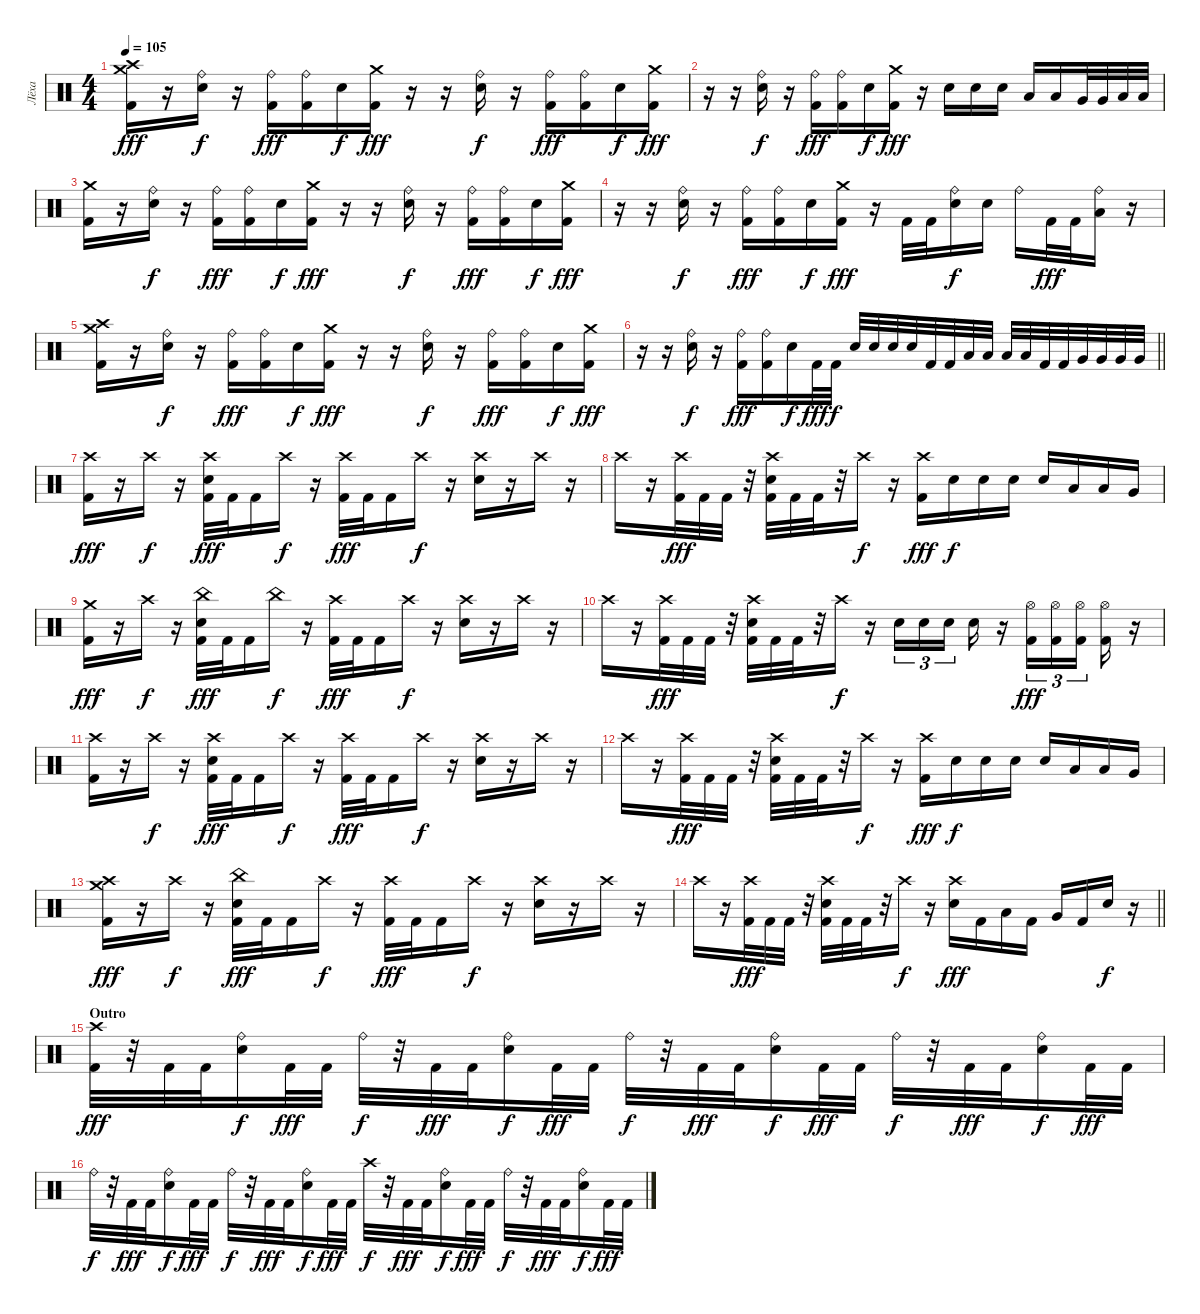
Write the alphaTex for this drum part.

\track ("Лёха" "Лёха") {solo instrument percussion}
\staff {score}
\articulation defaults
\ts (4 4)
\section ("" "")
\tempo 105
\clef neutral
\ks c
("Crash high (hit)" "Crash medium (hit)" "Kick (hit) 2").16{dy fff} r.16 ("Ride (bell)" "Electric Snare (hit)").16{dy f} r.16 ("Ride (bell)" "Kick (hit) 2").16{dy fff} ("Ride (bell)" "Kick (hit) 2").16 "Electric Snare (hit)".16{dy f} ("Crash medium (hit)" "Kick (hit) 2").16{dy fff} r.16 r.16 ("Ride (bell)" "Electric Snare (hit)").16{dy f} r.16 ("Ride (bell)" "Kick (hit) 2").16{dy fff} ("Ride (bell)" "Kick (hit) 2").16 "Electric Snare (hit)".16{dy f} ("Crash medium (hit)" "Kick (hit) 2").16{dy fff} |
r.16 r.16 ("Ride (bell)" "Electric Snare (hit)").16{dy f} r.16 ("Ride (bell)" "Kick (hit) 2").16{dy fff} ("Ride (bell)" "Kick (hit) 2").16 "Electric Snare (hit)".16{dy f} ("Crash medium (hit)" "Kick (hit) 2").16{dy fff} r.16 "Electric Snare (hit)".16 "Electric Snare (hit)".16 "Electric Snare (hit)".16 "Low Tom (hit)".16 "Low Tom (hit)".16 "Very Low Tom (hit)".32 "Very Low Tom (hit)".32 "Low Floor Tom (hit)".32 "Low Floor Tom (hit)".32 |
("Crash medium (hit)" "Kick (hit) 2").16 r.16 ("Ride (bell)" "Electric Snare (hit)").16{dy f} r.16 ("Ride (bell)" "Kick (hit) 2").16{dy fff} ("Ride (bell)" "Kick (hit) 2").16 "Electric Snare (hit)".16{dy f} ("Crash medium (hit)" "Kick (hit) 2").16{dy fff} r.16 r.16 ("Ride (bell)" "Electric Snare (hit)").16{dy f} r.16 ("Ride (bell)" "Kick (hit) 2").16{dy fff} ("Ride (bell)" "Kick (hit) 2").16 "Electric Snare (hit)".16{dy f} ("Crash medium (hit)" "Kick (hit) 2").16{dy fff} |
r.16 r.16 ("Ride (bell)" "Electric Snare (hit)").16{dy f} r.16 ("Ride (bell)" "Kick (hit) 2").16{dy fff} ("Ride (bell)" "Kick (hit) 2").16 "Electric Snare (hit)".16{dy f} ("Crash medium (hit)" "Kick (hit) 2").16{dy fff} r.16 "Kick (hit) 2".32 "Kick (hit) 2".32 ("Ride (bell)" "Electric Snare (hit)").16{dy f} "Electric Snare (hit)".16 "Ride (bell)".16 "Kick (hit) 2".32{dy fff} "Kick (hit) 2".32 ("Ride (bell)" "Low Tom (hit)").16 r.16 |
("Crash high (hit)" "Crash medium (hit)" "Kick (hit) 2").16 r.16 ("Ride (bell)" "Electric Snare (hit)").16{dy f} r.16 ("Ride (bell)" "Kick (hit) 2").16{dy fff} ("Ride (bell)" "Kick (hit) 2").16 "Electric Snare (hit)".16{dy f} ("Crash medium (hit)" "Kick (hit) 2").16{dy fff} r.16 r.16 ("Ride (bell)" "Electric Snare (hit)").16{dy f} r.16 ("Ride (bell)" "Kick (hit) 2").16{dy fff} ("Ride (bell)" "Kick (hit) 2").16 "Electric Snare (hit)".16{dy f} ("Crash medium (hit)" "Kick (hit) 2").16{dy fff} |
\barLineRight lightlight
r.16 r.16 ("Ride (bell)" "Electric Snare (hit)").16{dy f} r.16 ("Ride (bell)" "Kick (hit) 2").16{dy fff} ("Ride (bell)" "Kick (hit) 2").16 "Electric Snare (hit)".16{dy f} "Kick (hit) 2".32{dy fff} "Kick (hit) 2".32{dy f} "Electric Snare (hit)".32 "Electric Snare (hit)".32 "Electric Snare (hit)".32 "Electric Snare (hit)".32 "Kick (hit) 2".32 "Kick (hit) 2".32 "Low Tom (hit)".32 "Low Tom (hit)".32 "Low Tom (hit)".32 "Low Tom (hit)".32 "Kick (hit) 2".32 "Kick (hit) 2".32 "Very Low Tom (hit)".32 "Very Low Tom (hit)".32 "Very Low Tom (hit)".32 "Very Low Tom (hit)".32 |
\section ("" "")
("Crash high (hit)" "Kick (hit) 2").16{dy fff} r.16 "Crash high (hit)".16{dy f} r.16 ("Crash high (hit)" "Electric Snare (hit)" "Kick (hit) 2").32{dy fff} "Kick (hit) 2".32 "Kick (hit) 2".16 "Crash high (hit)".16{dy f} r.16 ("Crash high (hit)" "Kick (hit) 2").32{dy fff} "Kick (hit) 2".32 "Kick (hit) 2".16 "Crash high (hit)".16{dy f} r.16 ("Crash high (hit)" "Electric Snare (hit)").16 r.16 "Crash high (hit)".16 r.16 |
"Crash high (hit)".16 r.16 ("Crash high (hit)" "Kick (hit) 2").32{dy fff} "Kick (hit) 2".32 "Kick (hit) 2".32 r.32 ("Crash high (hit)" "Electric Snare (hit)" "Kick (hit) 2").32 "Kick (hit) 2".32 "Kick (hit) 2".32 r.32 "Crash high (hit)".16{dy f} r.16 ("Crash high (hit)" "Kick (hit) 2").16{dy fff} "Electric Snare (hit)".16{dy f} "Electric Snare (hit)".16 "Electric Snare (hit)".16 "Electric Snare (hit)".16 "Low Tom (hit)".16 "Low Tom (hit)".16 "Very Low Tom (hit)".16 |
("Crash medium (hit)" "Kick (hit) 2").16{dy fff} r.16 "Crash high (hit)".16{dy f} r.16 ("China (hit)" "Electric Snare (hit)" "Kick (hit) 2").32{dy fff} "Kick (hit) 2".32 "Kick (hit) 2".16 "China (hit)".16{dy f} r.16 ("Crash high (hit)" "Kick (hit) 2").32{dy fff} "Kick (hit) 2".32 "Kick (hit) 2".16 "Crash high (hit)".16{dy f} r.16 ("Crash high (hit)" "Electric Snare (hit)").16 r.16 "Crash high (hit)".16 r.16 |
"Crash high (hit)".16 r.16 ("Crash high (hit)" "Kick (hit) 2").32{dy fff} "Kick (hit) 2".32 "Kick (hit) 2".32 r.32 ("Crash high (hit)" "Electric Snare (hit)" "Kick (hit) 2").32 "Kick (hit) 2".32 "Kick (hit) 2".32 r.32 "Crash high (hit)".16{dy f} r.16 "Electric Snare (hit)".16{tu (3 2)} "Electric Snare (hit)".16{tu (3 2)} "Electric Snare (hit)".16{tu (3 2) beam splitsecondary} "Electric Snare (hit)".16 r.16 ("Hi-Hat (open)" "Kick (hit) 2").16{tu (3 2) dy fff} ("Hi-Hat (open)" "Kick (hit) 2").16{tu (3 2)} ("Hi-Hat (open)" "Kick (hit) 2").16{tu (3 2) beam splitsecondary} ("Hi-Hat (open)" "Kick (hit) 2").16 r.16 |
("Crash high (hit)" "Kick (hit) 2").16 r.16 "Crash high (hit)".16{dy f} r.16 ("Crash high (hit)" "Electric Snare (hit)" "Kick (hit) 2").32{dy fff} "Kick (hit) 2".32 "Kick (hit) 2".16 "Crash high (hit)".16{dy f} r.16 ("Crash high (hit)" "Kick (hit) 2").32{dy fff} "Kick (hit) 2".32 "Kick (hit) 2".16 "Crash high (hit)".16{dy f} r.16 ("Crash high (hit)" "Electric Snare (hit)").16 r.16 "Crash high (hit)".16 r.16 |
"Crash high (hit)".16 r.16 ("Crash high (hit)" "Kick (hit) 2").32{dy fff} "Kick (hit) 2".32 "Kick (hit) 2".32 r.32 ("Crash high (hit)" "Electric Snare (hit)" "Kick (hit) 2").32 "Kick (hit) 2".32 "Kick (hit) 2".32 r.32 "Crash high (hit)".16{dy f} r.16 ("Crash high (hit)" "Kick (hit) 2").16{dy fff} "Electric Snare (hit)".16{dy f} "Electric Snare (hit)".16 "Electric Snare (hit)".16 "Electric Snare (hit)".16 "Low Tom (hit)".16 "Low Tom (hit)".16 "Very Low Tom (hit)".16 |
("Crash high (hit)" "Crash medium (hit)" "Kick (hit) 2").16{dy fff} r.16 "Crash high (hit)".16{dy f} r.16 ("China (hit)" "Electric Snare (hit)" "Kick (hit) 2").32{dy fff} "Kick (hit) 2".32 "Kick (hit) 2".16 "Crash high (hit)".16{dy f} r.16 ("Crash high (hit)" "Kick (hit) 2").32{dy fff} "Kick (hit) 2".32 "Kick (hit) 2".16 "Crash high (hit)".16{dy f} r.16 ("Crash high (hit)" "Electric Snare (hit)").16 r.16 "Crash high (hit)".16 r.16 |
\barLineRight lightlight "Crash high (hit)".16
r.16 ("Crash high (hit)" "Kick (hit) 2").32{dy fff} "Kick (hit) 2".32 "Kick (hit) 2".32 r.32 ("Crash high (hit)" "Electric Snare (hit)" "Kick (hit) 2").32 "Kick (hit) 2".32 "Kick (hit) 2".32 r.32 "Crash high (hit)".16{dy f} r.16 ("Crash high (hit)" "Electric Snare (hit)").16{dy fff} "Kick (hit) 2".16 "Low Tom (hit)".16 "Kick (hit) 2".16 "Very Low Tom (hit)".16 "Kick (hit) 2".16 "Electric Snare (hit)".16{dy f} r.16 |
\section ("" "Outro")
("Crash high (hit)" "Kick (hit) 2").32{dy fff} r.32 "Kick (hit) 2".32 "Kick (hit) 2".32 ("Ride (bell)" "Electric Snare (hit)").16{dy f} "Kick (hit) 2".32{dy fff} "Kick (hit) 2".32 "Ride (bell)".32{dy f} r.32 "Kick (hit) 2".32{dy fff} "Kick (hit) 2".32 ("Ride (bell)" "Electric Snare (hit)").16{dy f} "Kick (hit) 2".32{dy fff} "Kick (hit) 2".32 "Ride (bell)".32{dy f} r.32 "Kick (hit) 2".32{dy fff} "Kick (hit) 2".32 ("Ride (bell)" "Electric Snare (hit)").16{dy f} "Kick (hit) 2".32{dy fff} "Kick (hit) 2".32 "Ride (bell)".32{dy f} r.32 "Kick (hit) 2".32{dy fff} "Kick (hit) 2".32 ("Ride (bell)" "Electric Snare (hit)").16{dy f} "Kick (hit) 2".32{dy fff} "Kick (hit) 2".32 |
"Ride (bell)".32{dy f} r.32 "Kick (hit) 2".32{dy fff} "Kick (hit) 2".32 ("Ride (bell)" "Electric Snare (hit)").16{dy f} "Kick (hit) 2".32{dy fff} "Kick (hit) 2".32 "Ride (bell)".32{dy f} r.32 "Kick (hit) 2".32{dy fff} "Kick (hit) 2".32 ("Ride (bell)" "Electric Snare (hit)").16{dy f} "Kick (hit) 2".32{dy fff} "Kick (hit) 2".32 "Crash high (hit)".32{dy f} r.32 "Kick (hit) 2".32{dy fff} "Kick (hit) 2".32 ("Ride (bell)" "Electric Snare (hit)").16{dy f} "Kick (hit) 2".32{dy fff} "Kick (hit) 2".32 "Ride (bell)".32{dy f} r.32 "Kick (hit) 2".32{dy fff} "Kick (hit) 2".32 ("Ride (bell)" "Electric Snare (hit)").16{dy f} "Kick (hit) 2".32{dy fff} "Kick (hit) 2".32
